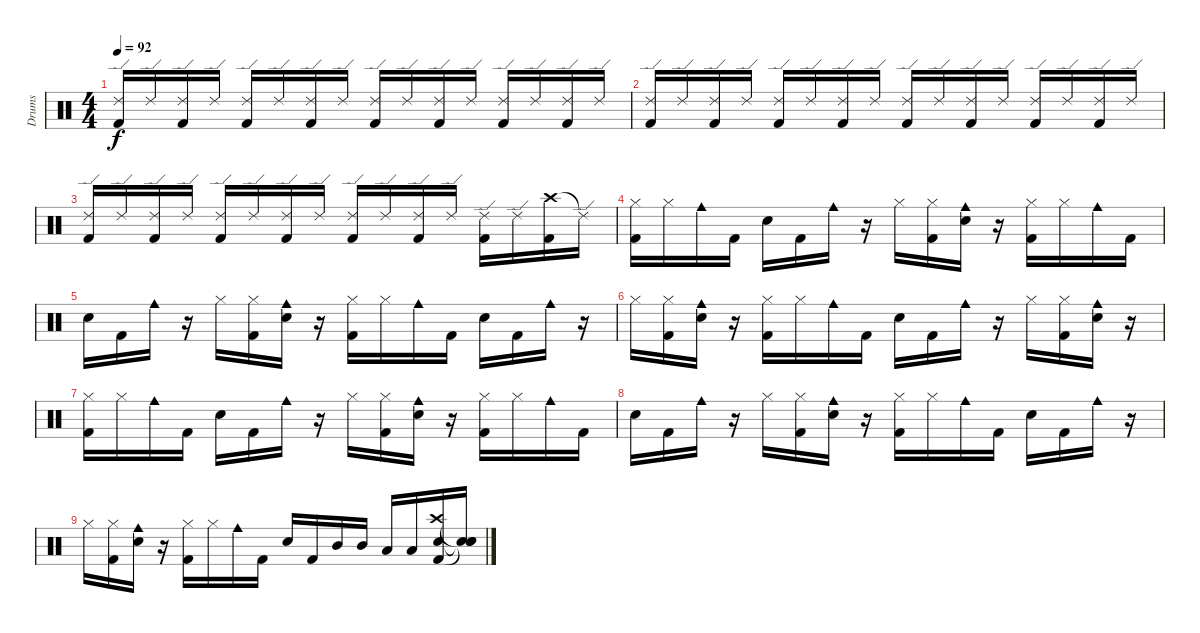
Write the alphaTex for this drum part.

\track ("Drums" "Drums") {instrument percussion}
\staff {score}
\articulation defaults
\ts (4 4)
\tempo 92
\clef neutral
\ks c
("Ride (edge) 2" "Kick (hit) 2").16{dy f} "Ride (edge) 2".16 ("Ride (edge) 2" "Kick (hit) 2").16 "Ride (edge) 2".16 ("Ride (edge) 2" "Kick (hit) 2").16 "Ride (edge) 2".16 ("Ride (edge) 2" "Kick (hit) 2").16 "Ride (edge) 2".16 ("Ride (edge) 2" "Kick (hit) 2").16 "Ride (edge) 2".16 ("Ride (edge) 2" "Kick (hit) 2").16 "Ride (edge) 2".16 ("Ride (edge) 2" "Kick (hit) 2").16 "Ride (edge) 2".16 ("Ride (edge) 2" "Kick (hit) 2").16 "Ride (edge) 2".16 |
("Ride (edge) 2" "Kick (hit) 2").16 "Ride (edge) 2".16 ("Ride (edge) 2" "Kick (hit) 2").16 "Ride (edge) 2".16 ("Ride (edge) 2" "Kick (hit) 2").16 "Ride (edge) 2".16 ("Ride (edge) 2" "Kick (hit) 2").16 "Ride (edge) 2".16 ("Ride (edge) 2" "Kick (hit) 2").16 "Ride (edge) 2".16 ("Ride (edge) 2" "Kick (hit) 2").16 "Ride (edge) 2".16 ("Ride (edge) 2" "Kick (hit) 2").16 "Ride (edge) 2".16 ("Ride (edge) 2" "Kick (hit) 2").16 "Ride (edge) 2".16 |
("Ride (edge) 2" "Kick (hit) 2").16 "Ride (edge) 2".16 ("Ride (edge) 2" "Kick (hit) 2").16 "Ride (edge) 2".16 ("Ride (edge) 2" "Kick (hit) 2").16 "Ride (edge) 2".16 ("Ride (edge) 2" "Kick (hit) 2").16 "Ride (edge) 2".16 ("Ride (edge) 2" "Kick (hit) 2").16 "Ride (edge) 2".16 ("Ride (edge) 2" "Kick (hit) 2").16 "Ride (edge) 2".16 ("Ride (edge) 2" "Kick (hit) 2").16 "Ride (edge) 2".16 ("Crash high (hit)" "Kick (hit) 2").16 "Ride (edge) 2"{t}.16 |
("Hi-Hat (closed)" "Kick (hit) 2").16 "Hi-Hat (closed)".16 "Cowbell medium (hit)".16 "Kick (hit) 2".16 "Snare (hit) 2".16 "Kick (hit) 2".16 "Cowbell medium (hit)".16 r.16 "Hi-Hat (closed)".16 ("Hi-Hat (closed)" "Kick (hit) 2").16 ("Cowbell medium (hit)" "Snare (hit) 2").16 r.16 ("Hi-Hat (closed)" "Kick (hit) 2").16 "Hi-Hat (closed)".16 "Cowbell medium (hit)".16 "Kick (hit) 2".16 |
"Snare (hit) 2".16 "Kick (hit) 2".16 "Cowbell medium (hit)".16 r.16 "Hi-Hat (closed)".16 ("Hi-Hat (closed)" "Kick (hit) 2").16 ("Cowbell medium (hit)" "Snare (hit) 2").16 r.16 ("Hi-Hat (closed)" "Kick (hit) 2").16 "Hi-Hat (closed)".16 "Cowbell medium (hit)".16 "Kick (hit) 2".16 "Snare (hit) 2".16 "Kick (hit) 2".16 "Cowbell medium (hit)".16 r.16 |
"Hi-Hat (closed)".16 ("Hi-Hat (closed)" "Kick (hit) 2").16 ("Cowbell medium (hit)" "Snare (hit) 2").16 r.16 ("Hi-Hat (closed)" "Kick (hit) 2").16 "Hi-Hat (closed)".16 "Cowbell medium (hit)".16 "Kick (hit) 2".16 "Snare (hit) 2".16 "Kick (hit) 2".16 "Cowbell medium (hit)".16 r.16 "Hi-Hat (closed)".16 ("Hi-Hat (closed)" "Kick (hit) 2").16 ("Cowbell medium (hit)" "Snare (hit) 2").16 r.16 |
("Hi-Hat (closed)" "Kick (hit) 2").16 "Hi-Hat (closed)".16 "Cowbell medium (hit)".16 "Kick (hit) 2".16 "Snare (hit) 2".16 "Kick (hit) 2".16 "Cowbell medium (hit)".16 r.16 "Hi-Hat (closed)".16 ("Hi-Hat (closed)" "Kick (hit) 2").16 ("Cowbell medium (hit)" "Snare (hit) 2").16 r.16 ("Hi-Hat (closed)" "Kick (hit) 2").16 "Hi-Hat (closed)".16 "Cowbell medium (hit)".16 "Kick (hit) 2".16 |
"Snare (hit) 2".16 "Kick (hit) 2".16 "Cowbell medium (hit)".16 r.16 "Hi-Hat (closed)".16 ("Hi-Hat (closed)" "Kick (hit) 2").16 ("Cowbell medium (hit)" "Snare (hit) 2").16 r.16 ("Hi-Hat (closed)" "Kick (hit) 2").16 "Hi-Hat (closed)".16 "Cowbell medium (hit)".16 "Kick (hit) 2".16 "Snare (hit) 2".16 "Kick (hit) 2".16 "Cowbell medium (hit)".16 r.16 |
"Hi-Hat (closed)".16 ("Hi-Hat (closed)" "Kick (hit) 2").16 ("Cowbell medium (hit)" "Snare (hit) 2").16 r.16 ("Hi-Hat (closed)" "Kick (hit) 2").16 "Hi-Hat (closed)".16 "Cowbell medium (hit)".16 "Kick (hit) 2".16 "Snare (hit) 2".16 "Kick (hit) 2".16 "Mid Tom (hit)".16 "Mid Tom (hit)".16 "Low Floor Tom (hit)".16 "Low Floor Tom (hit)".16 ("Crash high (hit)" "Snare (hit) 2" "Kick (hit) 2").16 ("Snare (hit)"{t} "Snare (hit)"{t} "Snare (hit)"{t}).16
